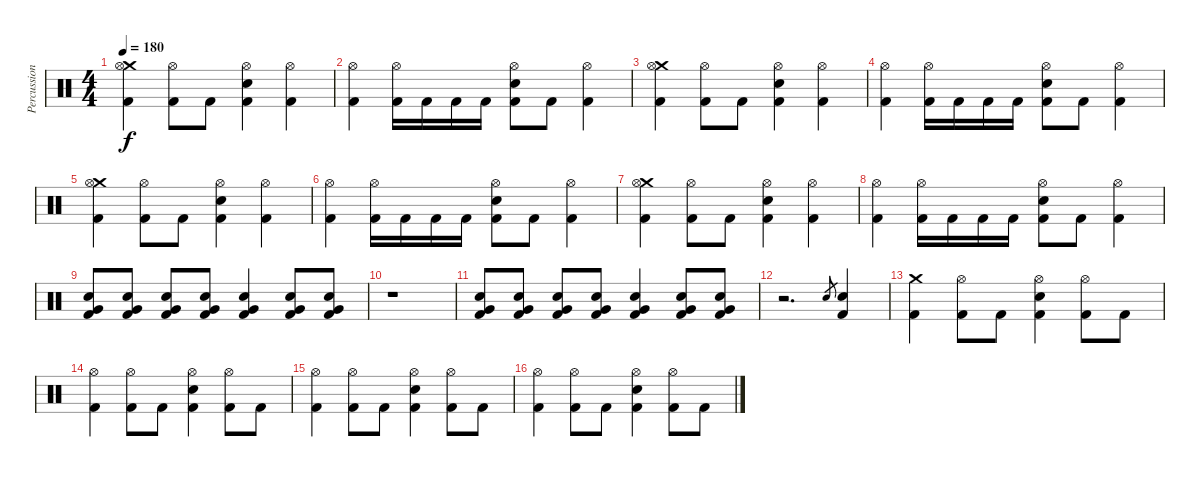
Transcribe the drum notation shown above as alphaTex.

\track ("Percussion" "Percussion") {instrument percussion}
\staff {score}
\articulation defaults
\ts (4 4)
\tempo 180
\clef neutral
\ks c
("Crash medium (hit)" "Hi-Hat (open)" "Kick (hit) 2").4{dy f} ("Hi-Hat (open)" "Kick (hit) 2").8 "Kick (hit) 2".8 ("Hi-Hat (open)" "Electric Snare (hit)" "Kick (hit) 2").4 ("Hi-Hat (open)" "Kick (hit) 2").4 |
("Hi-Hat (open)" "Kick (hit) 2").4 ("Hi-Hat (open)" "Kick (hit) 2").16 "Kick (hit) 2".16 "Kick (hit) 2".16 "Kick (hit) 2".16 ("Hi-Hat (open)" "Electric Snare (hit)" "Kick (hit) 2").8 "Kick (hit) 2".8 ("Hi-Hat (open)" "Kick (hit) 2").4 |
("Crash medium (hit)" "Hi-Hat (open)" "Kick (hit) 2").4 ("Hi-Hat (open)" "Kick (hit) 2").8 "Kick (hit) 2".8 ("Hi-Hat (open)" "Electric Snare (hit)" "Kick (hit) 2").4 ("Hi-Hat (open)" "Kick (hit) 2").4 |
("Hi-Hat (open)" "Kick (hit) 2").4 ("Hi-Hat (open)" "Kick (hit) 2").16 "Kick (hit) 2".16 "Kick (hit) 2".16 "Kick (hit) 2".16 ("Hi-Hat (open)" "Electric Snare (hit)" "Kick (hit) 2").8 "Kick (hit) 2".8 ("Hi-Hat (open)" "Kick (hit) 2").4 |
("Crash medium (hit)" "Hi-Hat (open)" "Kick (hit) 2").4 ("Hi-Hat (open)" "Kick (hit) 2").8 "Kick (hit) 2".8 ("Hi-Hat (open)" "Electric Snare (hit)" "Kick (hit) 2").4 ("Hi-Hat (open)" "Kick (hit) 2").4 |
("Hi-Hat (open)" "Kick (hit) 2").4 ("Hi-Hat (open)" "Kick (hit) 2").16 "Kick (hit) 2".16 "Kick (hit) 2".16 "Kick (hit) 2".16 ("Hi-Hat (open)" "Electric Snare (hit)" "Kick (hit) 2").8 "Kick (hit) 2".8 ("Hi-Hat (open)" "Kick (hit) 2").4 |
("Crash medium (hit)" "Hi-Hat (open)" "Kick (hit) 2").4 ("Hi-Hat (open)" "Kick (hit) 2").8 "Kick (hit) 2".8 ("Hi-Hat (open)" "Electric Snare (hit)" "Kick (hit) 2").4 ("Hi-Hat (open)" "Kick (hit) 2").4 |
("Hi-Hat (open)" "Kick (hit) 2").4 ("Hi-Hat (open)" "Kick (hit) 2").16 "Kick (hit) 2".16 "Kick (hit) 2".16 "Kick (hit) 2".16 ("Hi-Hat (open)" "Electric Snare (hit)" "Kick (hit) 2").8 "Kick (hit) 2".8 ("Hi-Hat (open)" "Kick (hit) 2").4 |
("Very Low Tom (hit)" "Electric Snare (hit)" "Kick (hit) 2").8 ("Very Low Tom (hit)" "Electric Snare (hit)" "Kick (hit) 2").8 ("Very Low Tom (hit)" "Electric Snare (hit)" "Kick (hit) 2").8 ("Very Low Tom (hit)" "Electric Snare (hit)" "Kick (hit) 2").8 ("Very Low Tom (hit)" "Electric Snare (hit)" "Kick (hit) 2").4 ("Very Low Tom (hit)" "Electric Snare (hit)" "Kick (hit) 2").8 ("Very Low Tom (hit)" "Electric Snare (hit)" "Kick (hit) 2").8 |
r.1 |
("Very Low Tom (hit)" "Electric Snare (hit)" "Kick (hit) 2").8 ("Very Low Tom (hit)" "Electric Snare (hit)" "Kick (hit) 2").8 ("Very Low Tom (hit)" "Electric Snare (hit)" "Kick (hit) 2").8 ("Very Low Tom (hit)" "Electric Snare (hit)" "Kick (hit) 2").8 ("Very Low Tom (hit)" "Electric Snare (hit)" "Kick (hit) 2").4 ("Very Low Tom (hit)" "Electric Snare (hit)" "Kick (hit) 2").8 ("Very Low Tom (hit)" "Electric Snare (hit)" "Kick (hit) 2").8 |
r.2{d} "Electric Snare (hit)".8{gr} ("Electric Snare (hit)" "Kick (hit) 2").4 |
("Crash medium (hit)" "Kick (hit) 2").4 ("Hi-Hat (open)" "Kick (hit) 2").8 "Kick (hit) 2".8 ("Hi-Hat (open)" "Electric Snare (hit)" "Kick (hit) 2").4 ("Hi-Hat (open)" "Kick (hit) 2").8 "Kick (hit) 2".8 |
("Hi-Hat (open)" "Kick (hit) 2").4 ("Hi-Hat (open)" "Kick (hit) 2").8 "Kick (hit) 2".8 ("Hi-Hat (open)" "Electric Snare (hit)" "Kick (hit) 2").4 ("Hi-Hat (open)" "Kick (hit) 2").8 "Kick (hit) 2".8 |
("Hi-Hat (open)" "Kick (hit) 2").4 ("Hi-Hat (open)" "Kick (hit) 2").8 "Kick (hit) 2".8 ("Hi-Hat (open)" "Electric Snare (hit)" "Kick (hit) 2").4 ("Hi-Hat (open)" "Kick (hit) 2").8 "Kick (hit) 2".8 |
("Hi-Hat (open)" "Kick (hit) 2").4 ("Hi-Hat (open)" "Kick (hit) 2").8 "Kick (hit) 2".8 ("Hi-Hat (open)" "Electric Snare (hit)" "Kick (hit) 2").4 ("Hi-Hat (open)" "Kick (hit) 2").8 "Kick (hit) 2".8
